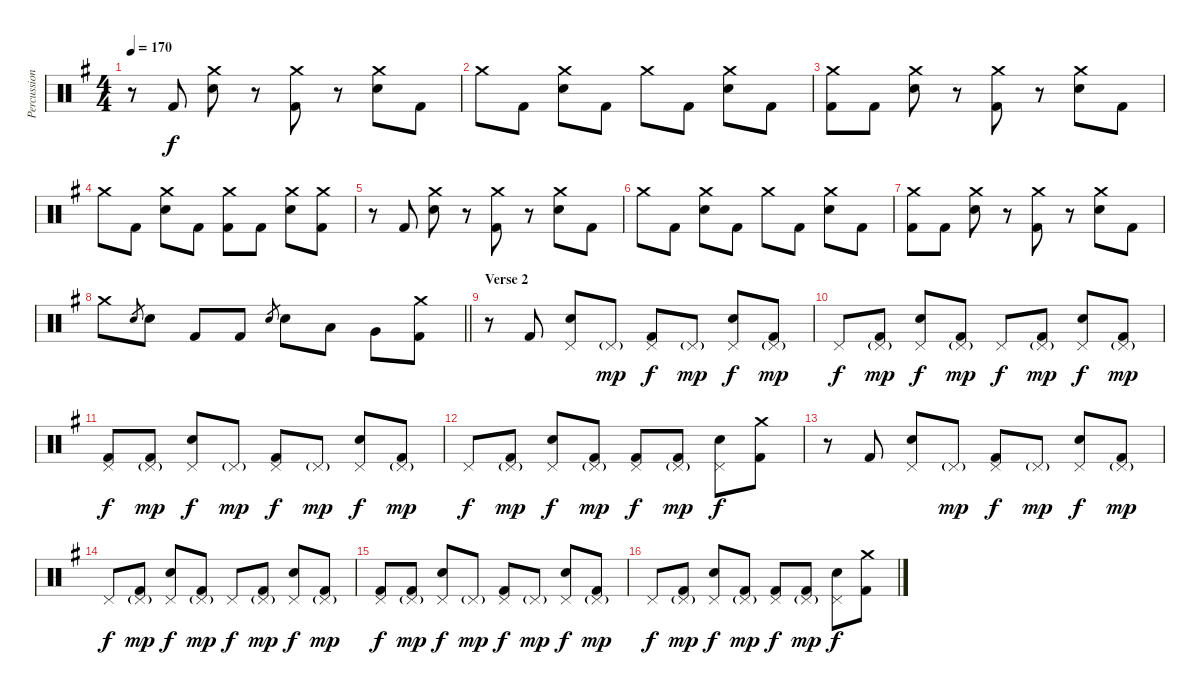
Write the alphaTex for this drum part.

\track ("Percussion" "Percussion") {instrument percussion}
\staff {score}
\articulation defaults
\ts (4 4)
\tempo 170
\clef neutral
\ks g
r.8{dy f} "Kick (hit) 2".8 ("Crash medium (hit)" "Electric Snare (hit)").8 r.8 ("Crash medium (hit)" "Kick (hit) 2").8 r.8 ("Crash medium (hit)" "Electric Snare (hit)").8 "Kick (hit) 2".8 |
"Crash medium (hit)".8 "Kick (hit) 2".8 ("Crash medium (hit)" "Electric Snare (hit)").8 "Kick (hit) 2".8 "Crash medium (hit)".8 "Kick (hit) 2".8 ("Crash medium (hit)" "Electric Snare (hit)").8 "Kick (hit) 2".8 |
("Crash medium (hit)" "Kick (hit) 2").8 "Kick (hit) 2".8 ("Crash medium (hit)" "Electric Snare (hit)").8 r.8 ("Crash medium (hit)" "Kick (hit) 2").8 r.8 ("Crash medium (hit)" "Electric Snare (hit)").8 "Kick (hit) 2".8 |
"Crash medium (hit)".8 "Kick (hit) 2".8 ("Crash medium (hit)" "Electric Snare (hit)").8 "Kick (hit) 2".8 ("Crash medium (hit)" "Kick (hit) 2").8 "Kick (hit) 2".8 ("Crash medium (hit)" "Electric Snare (hit)").8 ("Crash medium (hit)" "Kick (hit) 2").8 |
r.8 "Kick (hit) 2".8 ("Crash medium (hit)" "Electric Snare (hit)").8 r.8 ("Crash medium (hit)" "Kick (hit) 2").8 r.8 ("Crash medium (hit)" "Electric Snare (hit)").8 "Kick (hit) 2".8 |
"Crash medium (hit)".8 "Kick (hit) 2".8 ("Crash medium (hit)" "Electric Snare (hit)").8 "Kick (hit) 2".8 "Crash medium (hit)".8 "Kick (hit) 2".8 ("Crash medium (hit)" "Electric Snare (hit)").8 "Kick (hit) 2".8 |
("Crash medium (hit)" "Kick (hit) 2").8 "Kick (hit) 2".8 ("Crash medium (hit)" "Electric Snare (hit)").8 r.8 ("Crash medium (hit)" "Kick (hit) 2").8 r.8 ("Crash medium (hit)" "Electric Snare (hit)").8 "Kick (hit) 2".8 |
\barLineRight lightlight "Crash medium (hit)".8 "Electric Snare (hit)".8{gr} "Electric Snare (hit)".8 "Kick (hit) 2".8 "Kick (hit) 2".8 "Electric Snare (hit)".8{gr} "Electric Snare (hit)".8 "Low Tom (hit)".8 "Very Low Tom (hit)".8
("Crash medium (hit)" "Kick (hit) 2").8 |
\section ("" "Verse 2")
r.8 "Kick (hit) 2".8 ("Pedal Hi-Hat (hit)" "Electric Snare (hit)").8 "Pedal Hi-Hat (hit)"{g}.8{dy mp} ("Pedal Hi-Hat (hit)" "Kick (hit) 2").8{dy f} "Pedal Hi-Hat (hit)"{g}.8{dy mp} ("Pedal Hi-Hat (hit)" "Electric Snare (hit)").8{dy f} ("Pedal Hi-Hat (hit)"{g} "Kick (hit) 2").8{dy mp} |
"Pedal Hi-Hat (hit)".8{dy f} ("Pedal Hi-Hat (hit)"{g} "Kick (hit) 2").8{dy mp} ("Pedal Hi-Hat (hit)" "Electric Snare (hit)").8{dy f} ("Pedal Hi-Hat (hit)"{g} "Kick (hit) 2").8{dy mp} "Pedal Hi-Hat (hit)".8{dy f} ("Pedal Hi-Hat (hit)"{g} "Kick (hit) 2").8{dy mp} ("Pedal Hi-Hat (hit)" "Electric Snare (hit)").8{dy f} ("Pedal Hi-Hat (hit)"{g} "Kick (hit) 2").8{dy mp} |
("Pedal Hi-Hat (hit)" "Kick (hit) 2").8{dy f} ("Pedal Hi-Hat (hit)"{g} "Kick (hit) 2").8{dy mp} ("Pedal Hi-Hat (hit)" "Electric Snare (hit)").8{dy f} "Pedal Hi-Hat (hit)"{g}.8{dy mp} ("Pedal Hi-Hat (hit)" "Kick (hit) 2").8{dy f} "Pedal Hi-Hat (hit)"{g}.8{dy mp} ("Pedal Hi-Hat (hit)" "Electric Snare (hit)").8{dy f} ("Pedal Hi-Hat (hit)"{g} "Kick (hit) 2").8{dy mp} |
"Pedal Hi-Hat (hit)".8{dy f} ("Pedal Hi-Hat (hit)"{g} "Kick (hit) 2").8{dy mp} ("Pedal Hi-Hat (hit)" "Electric Snare (hit)").8{dy f} ("Pedal Hi-Hat (hit)"{g} "Kick (hit) 2").8{dy mp} ("Pedal Hi-Hat (hit)" "Kick (hit) 2").8{dy f} ("Pedal Hi-Hat (hit)"{g} "Kick (hit) 2").8{dy mp} ("Pedal Hi-Hat (hit)" "Electric Snare (hit)").8{dy f} ("Crash medium (hit)" "Kick (hit) 2").8 |
r.8 "Kick (hit) 2".8 ("Pedal Hi-Hat (hit)" "Electric Snare (hit)").8 "Pedal Hi-Hat (hit)"{g}.8{dy mp} ("Pedal Hi-Hat (hit)" "Kick (hit) 2").8{dy f} "Pedal Hi-Hat (hit)"{g}.8{dy mp} ("Pedal Hi-Hat (hit)" "Electric Snare (hit)").8{dy f} ("Pedal Hi-Hat (hit)"{g} "Kick (hit) 2").8{dy mp} |
"Pedal Hi-Hat (hit)".8{dy f} ("Pedal Hi-Hat (hit)"{g} "Kick (hit) 2").8{dy mp} ("Pedal Hi-Hat (hit)" "Electric Snare (hit)").8{dy f} ("Pedal Hi-Hat (hit)"{g} "Kick (hit) 2").8{dy mp} "Pedal Hi-Hat (hit)".8{dy f} ("Pedal Hi-Hat (hit)"{g} "Kick (hit) 2").8{dy mp} ("Pedal Hi-Hat (hit)" "Electric Snare (hit)").8{dy f} ("Pedal Hi-Hat (hit)"{g} "Kick (hit) 2").8{dy mp} |
("Pedal Hi-Hat (hit)" "Kick (hit) 2").8{dy f} ("Pedal Hi-Hat (hit)"{g} "Kick (hit) 2").8{dy mp} ("Pedal Hi-Hat (hit)" "Electric Snare (hit)").8{dy f} "Pedal Hi-Hat (hit)"{g}.8{dy mp} ("Pedal Hi-Hat (hit)" "Kick (hit) 2").8{dy f} "Pedal Hi-Hat (hit)"{g}.8{dy mp} ("Pedal Hi-Hat (hit)" "Electric Snare (hit)").8{dy f} ("Pedal Hi-Hat (hit)"{g} "Kick (hit) 2").8{dy mp} |
"Pedal Hi-Hat (hit)".8{dy f} ("Pedal Hi-Hat (hit)"{g} "Kick (hit) 2").8{dy mp} ("Pedal Hi-Hat (hit)" "Electric Snare (hit)").8{dy f} ("Pedal Hi-Hat (hit)"{g} "Kick (hit) 2").8{dy mp} ("Pedal Hi-Hat (hit)" "Kick (hit) 2").8{dy f} ("Pedal Hi-Hat (hit)"{g} "Kick (hit) 2").8{dy mp} ("Pedal Hi-Hat (hit)" "Electric Snare (hit)").8{dy f} ("Crash medium (hit)" "Kick (hit) 2").8
